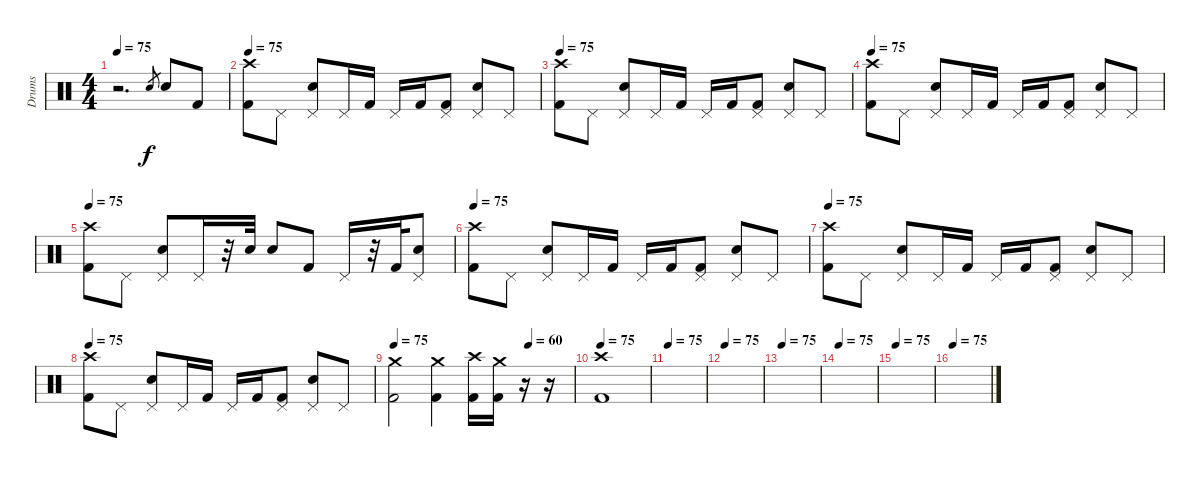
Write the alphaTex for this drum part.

\track ("Drums" "Drums") {instrument percussion}
\staff {score}
\articulation defaults
\ts (4 4)
\tempo 75
\clef neutral
\ks c
r.2{d dy f} "Electric Snare (hit)".8{gr} "Electric Snare (hit)".8 "Kick (hit) 2".8 |
\tempo 75
("Crash high (hit)" "Kick (hit) 2").8 "Pedal Hi-Hat (hit)".8 ("Pedal Hi-Hat (hit)" "Electric Snare (hit)").8 "Pedal Hi-Hat (hit)".16 "Kick (hit) 2".16 "Pedal Hi-Hat (hit)".16 "Kick (hit) 2".16 ("Pedal Hi-Hat (hit)" "Kick (hit) 2").8 ("Pedal Hi-Hat (hit)" "Electric Snare (hit)").8 "Pedal Hi-Hat (hit)".8 |
\tempo 75
("Crash high (hit)" "Kick (hit) 2").8 "Pedal Hi-Hat (hit)".8 ("Pedal Hi-Hat (hit)" "Electric Snare (hit)").8 "Pedal Hi-Hat (hit)".16 "Kick (hit) 2".16 "Pedal Hi-Hat (hit)".16 "Kick (hit) 2".16 ("Pedal Hi-Hat (hit)" "Kick (hit) 2").8 ("Pedal Hi-Hat (hit)" "Electric Snare (hit)").8 "Pedal Hi-Hat (hit)".8 |
\tempo 75
("Crash high (hit)" "Kick (hit) 2").8 "Pedal Hi-Hat (hit)".8 ("Pedal Hi-Hat (hit)" "Electric Snare (hit)").8 "Pedal Hi-Hat (hit)".16 "Kick (hit) 2".16 "Pedal Hi-Hat (hit)".16 "Kick (hit) 2".16 ("Pedal Hi-Hat (hit)" "Kick (hit) 2").8 ("Pedal Hi-Hat (hit)" "Electric Snare (hit)").8 "Pedal Hi-Hat (hit)".8 |
\tempo 75
("Crash high (hit)" "Kick (hit) 2").8 "Pedal Hi-Hat (hit)".8 ("Pedal Hi-Hat (hit)" "Electric Snare (hit)").8 "Pedal Hi-Hat (hit)".16 r.32 "Electric Snare (hit)".32 "Electric Snare (hit)".8 "Kick (hit) 2".8 "Pedal Hi-Hat (hit)".16 r.32 "Kick (hit) 2".32 ("Pedal Hi-Hat (hit)" "Electric Snare (hit)").8 |
\tempo 75
("Crash high (hit)" "Kick (hit) 2").8 "Pedal Hi-Hat (hit)".8 ("Pedal Hi-Hat (hit)" "Electric Snare (hit)").8 "Pedal Hi-Hat (hit)".16 "Kick (hit) 2".16 "Pedal Hi-Hat (hit)".16 "Kick (hit) 2".16 ("Pedal Hi-Hat (hit)" "Kick (hit) 2").8 ("Pedal Hi-Hat (hit)" "Electric Snare (hit)").8 "Pedal Hi-Hat (hit)".8 |
\tempo 75
("Crash high (hit)" "Kick (hit) 2").8 "Pedal Hi-Hat (hit)".8 ("Pedal Hi-Hat (hit)" "Electric Snare (hit)").8 "Pedal Hi-Hat (hit)".16 "Kick (hit) 2".16 "Pedal Hi-Hat (hit)".16 "Kick (hit) 2".16 ("Pedal Hi-Hat (hit)" "Kick (hit) 2").8 ("Pedal Hi-Hat (hit)" "Electric Snare (hit)").8 "Pedal Hi-Hat (hit)".8 |
\tempo 75
("Crash high (hit)" "Kick (hit) 2").8 "Pedal Hi-Hat (hit)".8 ("Pedal Hi-Hat (hit)" "Electric Snare (hit)").8 "Pedal Hi-Hat (hit)".16 "Kick (hit) 2".16 "Pedal Hi-Hat (hit)".16 "Kick (hit) 2".16 ("Pedal Hi-Hat (hit)" "Kick (hit) 2").8 ("Pedal Hi-Hat (hit)" "Electric Snare (hit)").8 "Pedal Hi-Hat (hit)".8 |
\tempo 75
\tempo (60 0.75)
("Crash medium (hit)" "Kick (hit) 2").2 ("Crash medium (hit)" "Kick (hit) 2").4 ("Crash high (hit)" "Kick (hit) 2").16 ("Crash medium (hit)" "Kick (hit) 2").16 r.16 r.16 |
\tempo 75
("Crash high (hit)" "Kick (hit) 2").1 |
\tempo 75
|
\tempo 75
|
\tempo 75
|
\tempo 75
|
\tempo 75
|
\tempo 75
